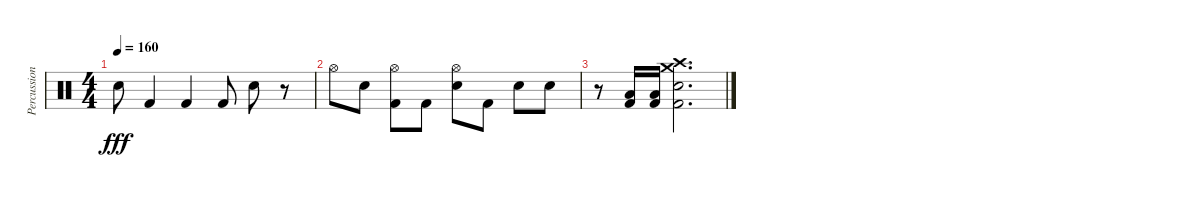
\track ("Percussion" "Percussion") {instrument percussion}
\staff {score}
\articulation defaults
\ts (4 4)
\tempo 160
\clef neutral
\ks c "Snare (hit) 2".8{dy fff} "Kick (hit) 2".4 "Kick (hit) 2".4 "Kick (hit) 2".8 "Snare (hit) 2".8
r.8 |
"Hi-Hat (open)".8 "Snare (hit) 2".8 ("Hi-Hat (open)" "Kick (hit) 2").8 "Kick (hit) 2".8 ("Hi-Hat (open)" "Snare (hit) 2").8 "Kick (hit) 2".8 "Snare (hit) 2".8 "Snare (hit) 2".8 |
r.8 ("Low Floor Tom (hit)" "Kick (hit) 2").16 ("Low Floor Tom (hit)" "Kick (hit) 2").16 ("Crash medium (hit)" "Crash high (hit)" "Snare (hit) 2" "Kick (hit) 2").2{d}
